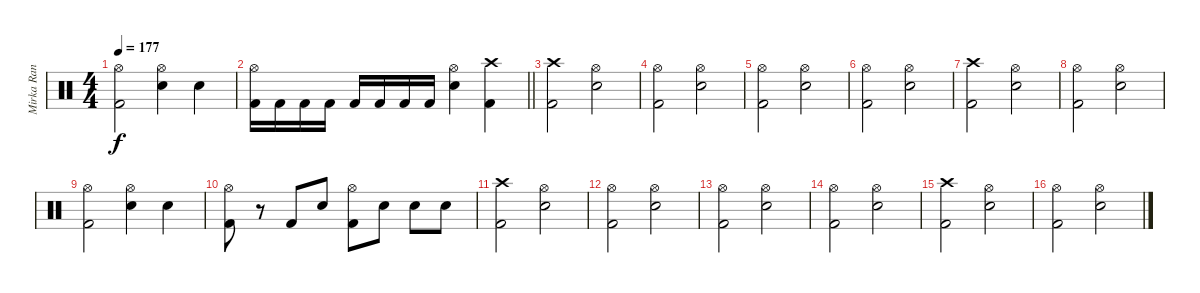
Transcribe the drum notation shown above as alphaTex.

\track (" Mirka Rantanen" " Mirka Ran") {instrument percussion}
\staff {score}
\articulation defaults
\ts (4 4)
\tempo 177
\clef neutral
\ks c
("Hi-Hat (open)" "Kick (hit) 2").2{dy f} ("Hi-Hat (open)" "Electric Snare (hit)").4 "Electric Snare (hit)".4 |
\barLineRight lightlight
("Hi-Hat (open)" "Kick (hit) 2").16 "Kick (hit) 2".16 "Kick (hit) 2".16 "Kick (hit) 2".16 "Kick (hit) 2".16 "Kick (hit) 2".16 "Kick (hit) 2".16 "Kick (hit) 2".16 ("Hi-Hat (open)" "Electric Snare (hit)").4 ("Crash high (hit)" "Kick (hit) 2").4 |
("Crash high (hit)" "Kick (hit) 2").2 ("Hi-Hat (open)" "Electric Snare (hit)").2 |
("Hi-Hat (open)" "Kick (hit) 2").2 ("Hi-Hat (open)" "Electric Snare (hit)").2 |
("Hi-Hat (open)" "Kick (hit) 2").2 ("Hi-Hat (open)" "Electric Snare (hit)").2 |
("Hi-Hat (open)" "Kick (hit) 2").2 ("Hi-Hat (open)" "Electric Snare (hit)").2 |
("Crash high (hit)" "Kick (hit) 2").2{volume 7} ("Hi-Hat (open)" "Electric Snare (hit)").2 |
("Hi-Hat (open)" "Kick (hit) 2").2 ("Hi-Hat (open)" "Electric Snare (hit)").2 |
("Hi-Hat (open)" "Kick (hit) 2").2 ("Hi-Hat (open)" "Electric Snare (hit)").4 "Electric Snare (hit)".4 |
("Hi-Hat (open)" "Kick (hit) 2").8 r.8 "Kick (hit) 2".8 "Electric Snare (hit)".8 ("Hi-Hat (open)" "Kick (hit) 2").8 "Electric Snare (hit)".8 "Electric Snare (hit)".8 "Electric Snare (hit)".8 |
("Crash high (hit)" "Kick (hit) 2").2{volume 4} ("Hi-Hat (open)" "Electric Snare (hit)").2 |
("Hi-Hat (open)" "Kick (hit) 2").2 ("Hi-Hat (open)" "Electric Snare (hit)").2 |
("Hi-Hat (open)" "Kick (hit) 2").2 ("Hi-Hat (open)" "Electric Snare (hit)").2 |
("Hi-Hat (open)" "Kick (hit) 2").2 ("Hi-Hat (open)" "Electric Snare (hit)").2 |
("Crash high (hit)" "Kick (hit) 2").2{volume 0} ("Hi-Hat (open)" "Electric Snare (hit)").2 |
("Hi-Hat (open)" "Kick (hit) 2").2 ("Hi-Hat (open)" "Electric Snare (hit)").2
